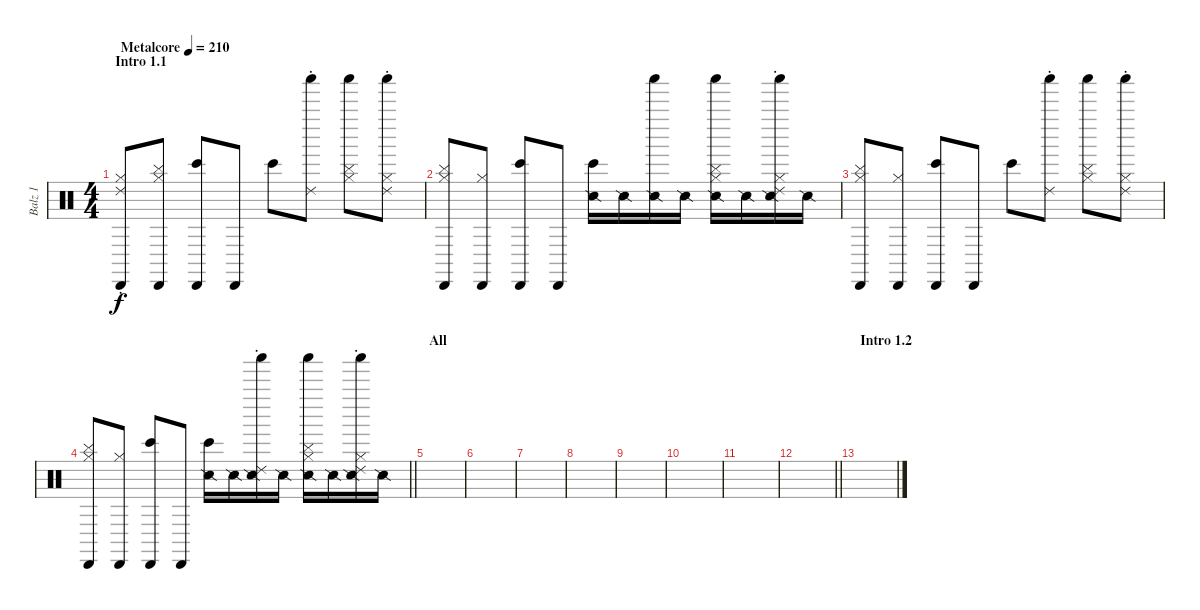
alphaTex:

\track ("Balz 1" "Balz 1") {instrument percussion}
\staff {score}
\articulation defaults
\ts (4 4)
\section ("" "Intro 1.1")
\tempo (210 "Metalcore")
\clef neutral
\ks c
("Ride (choke) 2" "Hi-Hat (closed)" "Cabasa (hit)").8{dy f} ("Cymbal (hit)" "Hi-Hat (closed)" "Cabasa (hit)").8 ("Bongo High (hit)" "Cabasa (hit)").8 "Cabasa (hit)".8 "Bongo High (hit)".8 ("Ride (choke) 2" "Shaker (hit)").8 ("Cymbal (hit)" "Shaker (hit)" "Hi-Hat (closed)").8 ("Ride (choke) 2" "Shaker (hit)" "Hi-Hat (closed)").8 |
("Cymbal (hit)" "Hi-Hat (closed)" "Cabasa (hit)").8 ("Hi-Hat (closed)" "Cabasa (hit)").8 ("Bongo High (hit)" "Cabasa (hit)").8 "Cabasa (hit)".8 ("Bongo High (hit)" "Snare (side stick) 2").16 "Snare (side stick) 2".16 ("Shaker (hit)" "Snare (side stick) 2").16 "Snare (side stick) 2".16 ("Cymbal (hit)" "Shaker (hit)" "Hi-Hat (closed)" "Snare (side stick) 2").16 "Snare (side stick) 2".16 ("Ride (choke) 2" "Shaker (hit)" "Hi-Hat (closed)" "Snare (side stick) 2").16 "Snare (side stick) 2".16 |
("Cymbal (hit)" "Hi-Hat (closed)" "Cabasa (hit)").8 ("Hi-Hat (closed)" "Cabasa (hit)").8 ("Bongo High (hit)" "Cabasa (hit)").8 "Cabasa (hit)".8 "Bongo High (hit)".8 ("Ride (choke) 2" "Shaker (hit)").8 ("Cymbal (hit)" "Shaker (hit)" "Hi-Hat (closed)").8 ("Ride (choke) 2" "Shaker (hit)" "Hi-Hat (closed)").8 |
\barLineRight lightlight
("Cymbal (hit)" "Hi-Hat (closed)" "Cabasa (hit)").8 ("Hi-Hat (closed)" "Cabasa (hit)").8 ("Bongo High (hit)" "Cabasa (hit)").8 "Cabasa (hit)".8 ("Bongo High (hit)" "Snare (side stick) 2").16 "Snare (side stick) 2".16 ("Ride (choke) 2" "Shaker (hit)" "Snare (side stick) 2").16 "Snare (side stick) 2".16 ("Cymbal (hit)" "Shaker (hit)" "Hi-Hat (closed)" "Snare (side stick) 2").16 "Snare (side stick) 2".16 ("Ride (choke) 2" "Shaker (hit)" "Hi-Hat (closed)" "Snare (side stick) 2").16 "Snare (side stick) 2".16 |
\section ("" "All")
|
|
|
|
|
|
|
\barLineRight lightlight
|
\section ("" "Intro 1.2")
